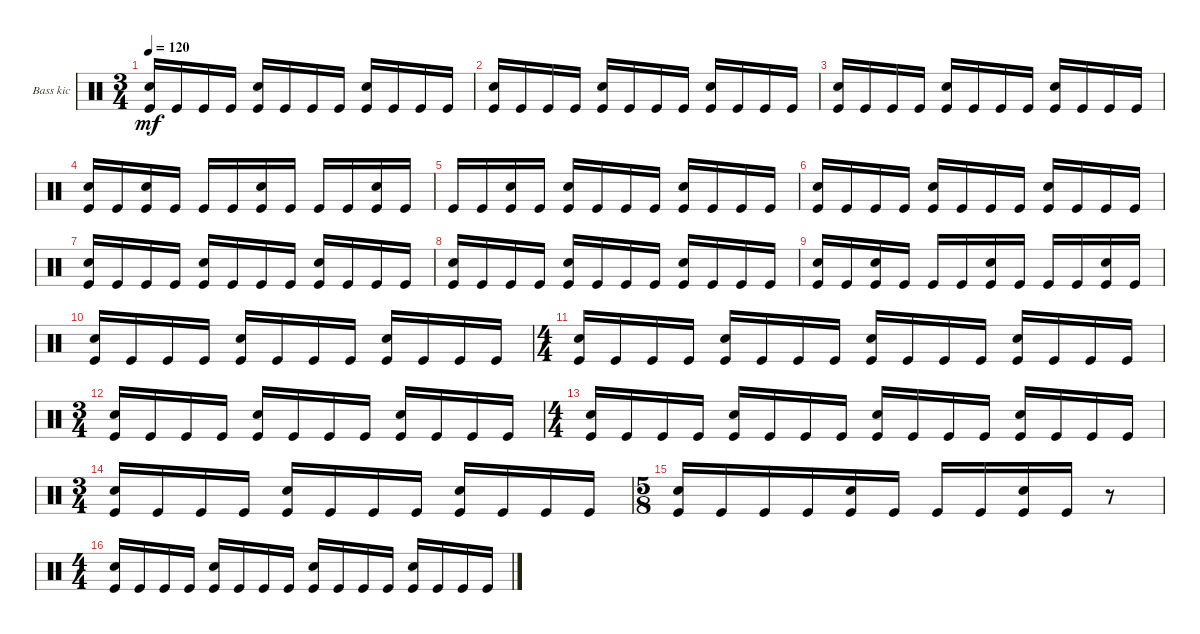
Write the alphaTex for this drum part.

\bracketExtendMode groupsimilarinstruments
\firstSystemTrackNameOrientation horizontal
\otherSystemsTrackNameOrientation horizontal
\track ("Bass kick" "Bass kic") {multiBarRest instrument percussion}
\staff {score}
\articulation defaults
\ts (3 4)
\tempo 120
\clef neutral
\scale
0.472222
\ks c
("Kick (hit)" "Snare (hit) 2").16{dy mf} "Kick (hit)".16 "Kick (hit)".16 "Kick (hit)".16 ("Kick (hit)" "Snare (hit) 2").16 "Kick (hit)".16 "Kick (hit)".16 "Kick (hit)".16 ("Kick (hit)" "Snare (hit) 2").16 "Kick (hit)".16 "Kick (hit)".16 "Kick (hit)".16 |
\scale
0.263889 ("Kick (hit)" "Snare (hit) 2").16 "Kick (hit)".16 "Kick (hit)".16 "Kick (hit)".16 ("Kick (hit)" "Snare (hit) 2").16 "Kick (hit)".16 "Kick (hit)".16 "Kick (hit)".16 ("Kick (hit)" "Snare (hit) 2").16 "Kick (hit)".16 "Kick (hit)".16 "Kick (hit)".16 |
\scale
0.263889 ("Kick (hit)" "Snare (hit) 2").16 "Kick (hit)".16 "Kick (hit)".16 "Kick (hit)".16 ("Kick (hit)" "Snare (hit) 2").16 "Kick (hit)".16 "Kick (hit)".16 "Kick (hit)".16 ("Kick (hit)" "Snare (hit) 2").16 "Kick (hit)".16 "Kick (hit)".16 "Kick (hit)".16 |
\scale
0.333333 ("Kick (hit)" "Snare (hit) 2").16 "Kick (hit)".16 ("Kick (hit)" "Snare (hit) 2").16 "Kick (hit)".16 "Kick (hit)".16 "Kick (hit)".16 ("Kick (hit)" "Snare (hit) 2").16 "Kick (hit)".16 "Kick (hit)".16 "Kick (hit)".16 ("Kick (hit)" "Snare (hit) 2").16 "Kick (hit)".16 |
\scale
0.333333 "Kick (hit)".16 "Kick (hit)".16 ("Kick (hit)" "Snare (hit) 2").16 "Kick (hit)".16 ("Kick (hit)" "Snare (hit) 2").16 "Kick (hit)".16 "Kick (hit)".16 "Kick (hit)".16 ("Kick (hit)" "Snare (hit) 2").16 "Kick (hit)".16 "Kick (hit)".16 "Kick (hit)".16 |
\scale
0.333333 ("Kick (hit)" "Snare (hit) 2").16 "Kick (hit)".16 "Kick (hit)".16 "Kick (hit)".16 ("Kick (hit)" "Snare (hit) 2").16 "Kick (hit)".16 "Kick (hit)".16 "Kick (hit)".16 ("Kick (hit)" "Snare (hit) 2").16 "Kick (hit)".16 "Kick (hit)".16 "Kick (hit)".16 |
\scale
0.333333 ("Kick (hit)" "Snare (hit) 2").16 "Kick (hit)".16 "Kick (hit)".16 "Kick (hit)".16 ("Kick (hit)" "Snare (hit) 2").16 "Kick (hit)".16 "Kick (hit)".16 "Kick (hit)".16 ("Kick (hit)" "Snare (hit) 2").16 "Kick (hit)".16 "Kick (hit)".16 "Kick (hit)".16 |
\scale
0.333333 ("Kick (hit)" "Snare (hit) 2").16 "Kick (hit)".16 "Kick (hit)".16 "Kick (hit)".16 ("Kick (hit)" "Snare (hit) 2").16 "Kick (hit)".16 "Kick (hit)".16 "Kick (hit)".16 ("Kick (hit)" "Snare (hit) 2").16 "Kick (hit)".16 "Kick (hit)".16 "Kick (hit)".16 |
\scale
0.333333 ("Kick (hit)" "Snare (hit) 2").16 "Kick (hit)".16 ("Kick (hit)" "Snare (hit) 2").16 "Kick (hit)".16 "Kick (hit)".16 "Kick (hit)".16 ("Kick (hit)" "Snare (hit) 2").16 "Kick (hit)".16 "Kick (hit)".16 "Kick (hit)".16 ("Kick (hit)" "Snare (hit) 2").16 "Kick (hit)".16 |
\scale
0.218391 ("Kick (hit)" "Snare (hit) 2").16 "Kick (hit)".16 "Kick (hit)".16 "Kick (hit)".16 ("Kick (hit)" "Snare (hit) 2").16 "Kick (hit)".16 "Kick (hit)".16 "Kick (hit)".16 ("Kick (hit)" "Snare (hit) 2").16 "Kick (hit)".16 "Kick (hit)".16 "Kick (hit)".16 |
\ts (4 4)
\scale
0.390805 ("Kick (hit)" "Snare (hit) 2").16 "Kick (hit)".16 "Kick (hit)".16 "Kick (hit)".16 ("Kick (hit)" "Snare (hit) 2").16 "Kick (hit)".16 "Kick (hit)".16 "Kick (hit)".16 ("Kick (hit)" "Snare (hit) 2").16 "Kick (hit)".16 "Kick (hit)".16 "Kick (hit)".16 ("Kick (hit)" "Snare (hit) 2").16 "Kick (hit)".16 "Kick (hit)".16 "Kick (hit)".16 |
\ts (3 4)
\scale
0.390805 ("Kick (hit)" "Snare (hit) 2").16 "Kick (hit)".16 "Kick (hit)".16 "Kick (hit)".16 ("Kick (hit)" "Snare (hit) 2").16 "Kick (hit)".16 "Kick (hit)".16 "Kick (hit)".16 ("Kick (hit)" "Snare (hit) 2").16 "Kick (hit)".16 "Kick (hit)".16 "Kick (hit)".16 |
\ts (4 4)
\scale
0.333333 ("Kick (hit)" "Snare (hit) 2").16 "Kick (hit)".16 "Kick (hit)".16 "Kick (hit)".16 ("Kick (hit)" "Snare (hit) 2").16 "Kick (hit)".16 "Kick (hit)".16 "Kick (hit)".16 ("Kick (hit)" "Snare (hit) 2").16 "Kick (hit)".16 "Kick (hit)".16 "Kick (hit)".16 ("Kick (hit)" "Snare (hit) 2").16 "Kick (hit)".16 "Kick (hit)".16 "Kick (hit)".16 |
\ts (3 4)
\scale
0.333333 ("Kick (hit)" "Snare (hit) 2").16 "Kick (hit)".16 "Kick (hit)".16 "Kick (hit)".16 ("Kick (hit)" "Snare (hit) 2").16 "Kick (hit)".16 "Kick (hit)".16 "Kick (hit)".16 ("Kick (hit)" "Snare (hit) 2").16 "Kick (hit)".16 "Kick (hit)".16 "Kick (hit)".16 |
\ts (5 8)
\scale
0.333333 ("Kick (hit)" "Snare (hit) 2").16 "Kick (hit)".16 "Kick (hit)".16 "Kick (hit)".16 ("Kick (hit)" "Snare (hit) 2").16 "Kick (hit)".16 "Kick (hit)".16 "Kick (hit)".16 ("Kick (hit)" "Snare (hit) 2").16 "Kick (hit)".16 r.8 |
\ts (4 4)
\scale
0.333333 ("Kick (hit)" "Snare (hit) 2").16 "Kick (hit)".16 "Kick (hit)".16 "Kick (hit)".16 ("Kick (hit)" "Snare (hit) 2").16 "Kick (hit)".16 "Kick (hit)".16 "Kick (hit)".16 ("Kick (hit)" "Snare (hit) 2").16 "Kick (hit)".16 "Kick (hit)".16 "Kick (hit)".16 ("Kick (hit)" "Snare (hit) 2").16 "Kick (hit)".16 "Kick (hit)".16 "Kick (hit)".16
